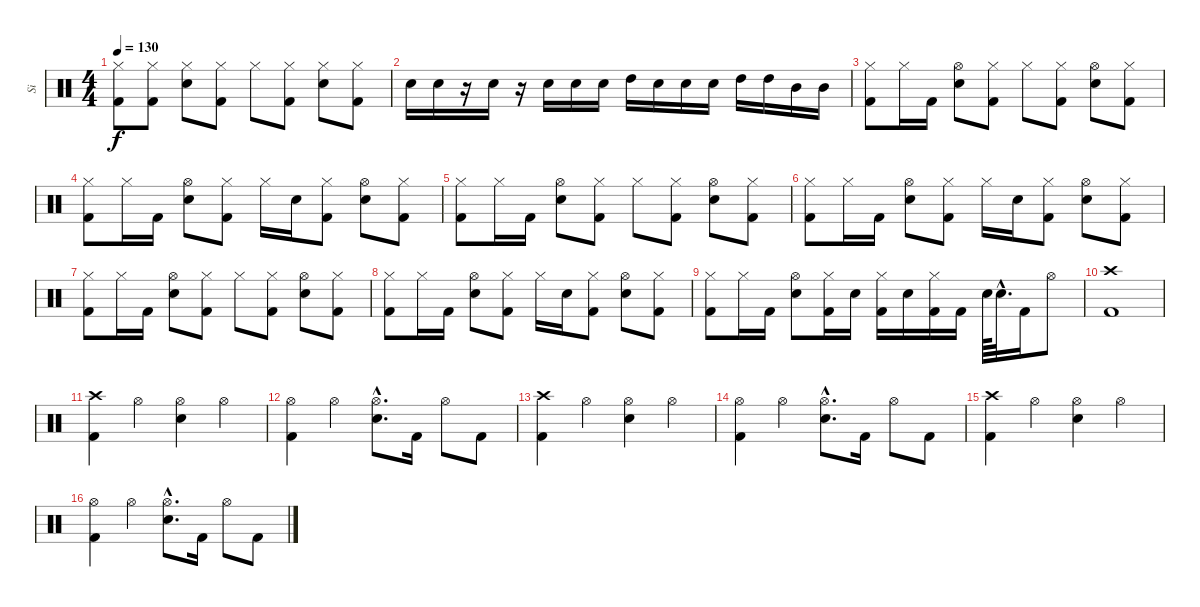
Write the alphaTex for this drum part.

\track ("Si" "Si") {instrument percussion}
\staff {score}
\articulation defaults
\ts (4 4)
\tempo 130
\clef neutral
\ks c
("Hi-Hat (closed)" "Kick (hit) 2").8{dy f} ("Hi-Hat (closed)" "Kick (hit) 2").8 ("Hi-Hat (closed)" "Electric Snare (hit)").8 ("Hi-Hat (closed)" "Kick (hit) 2").8 "Hi-Hat (closed)".8 ("Hi-Hat (closed)" "Kick (hit) 2").8 ("Hi-Hat (closed)" "Electric Snare (hit)").8 ("Hi-Hat (closed)" "Kick (hit) 2").8 |
"Electric Snare (hit)".16 "Electric Snare (hit)".16 r.16 "Electric Snare (hit)".16 r.16 "Electric Snare (hit)".16 "Electric Snare (hit)".16 "Electric Snare (hit)".16 "High Tom (hit)".16 "Electric Snare (hit)".16 "Electric Snare (hit)".16 "Electric Snare (hit)".16 "High Tom (hit)".16 "High Tom (hit)".16 "Mid Tom (hit)".16 "Mid Tom (hit)".16 |
("Hi-Hat (closed)" "Kick (hit) 2").8 "Hi-Hat (closed)".16 "Kick (hit) 2".16 ("Hi-Hat (open)" "Electric Snare (hit)").8 ("Hi-Hat (closed)" "Kick (hit) 2").8 "Hi-Hat (closed)".8 ("Hi-Hat (closed)" "Kick (hit) 2").8 ("Hi-Hat (open)" "Electric Snare (hit)").8 ("Hi-Hat (closed)" "Kick (hit) 2").8 |
("Hi-Hat (closed)" "Kick (hit) 2").8 "Hi-Hat (closed)".16 "Kick (hit) 2".16 ("Hi-Hat (open)" "Electric Snare (hit)").8 ("Hi-Hat (closed)" "Kick (hit) 2").8 "Hi-Hat (closed)".16 "Electric Snare (hit)".16 ("Hi-Hat (closed)" "Kick (hit) 2").8 ("Hi-Hat (open)" "Electric Snare (hit)").8 ("Hi-Hat (closed)" "Kick (hit) 2").8 |
("Hi-Hat (closed)" "Kick (hit) 2").8 "Hi-Hat (closed)".16 "Kick (hit) 2".16 ("Hi-Hat (open)" "Electric Snare (hit)").8 ("Hi-Hat (closed)" "Kick (hit) 2").8 "Hi-Hat (closed)".8 ("Hi-Hat (closed)" "Kick (hit) 2").8 ("Hi-Hat (open)" "Electric Snare (hit)").8 ("Hi-Hat (closed)" "Kick (hit) 2").8 |
("Hi-Hat (closed)" "Kick (hit) 2").8 "Hi-Hat (closed)".16 "Kick (hit) 2".16 ("Hi-Hat (open)" "Electric Snare (hit)").8 ("Hi-Hat (closed)" "Kick (hit) 2").8 "Hi-Hat (closed)".16 "Electric Snare (hit)".16 ("Hi-Hat (closed)" "Kick (hit) 2").8 ("Hi-Hat (open)" "Electric Snare (hit)").8 ("Hi-Hat (closed)" "Kick (hit) 2").8 |
("Hi-Hat (closed)" "Kick (hit) 2").8 "Hi-Hat (closed)".16 "Kick (hit) 2".16 ("Hi-Hat (open)" "Electric Snare (hit)").8 ("Hi-Hat (closed)" "Kick (hit) 2").8 "Hi-Hat (closed)".8 ("Hi-Hat (closed)" "Kick (hit) 2").8 ("Hi-Hat (open)" "Electric Snare (hit)").8 ("Hi-Hat (closed)" "Kick (hit) 2").8 |
("Hi-Hat (closed)" "Kick (hit) 2").8 "Hi-Hat (closed)".16 "Kick (hit) 2".16 ("Hi-Hat (open)" "Electric Snare (hit)").8 ("Hi-Hat (closed)" "Kick (hit) 2").8 "Hi-Hat (closed)".16 "Electric Snare (hit)".16 ("Hi-Hat (closed)" "Kick (hit) 2").8 ("Hi-Hat (open)" "Electric Snare (hit)").8 ("Hi-Hat (closed)" "Kick (hit) 2").8 |
("Hi-Hat (closed)" "Kick (hit) 2").8 "Hi-Hat (closed)".16 "Kick (hit) 2".16 ("Hi-Hat (open)" "Electric Snare (hit)").8 ("Hi-Hat (closed)" "Kick (hit) 2").16 "Electric Snare (hit)".16 ("Hi-Hat (closed)" "Kick (hit) 2").16 "Electric Snare (hit)".16 ("Hi-Hat (closed)" "Kick (hit) 2").16 "Kick (hit) 2".16 "Electric Snare (hit)".64 "Electric Snare (hit)"{hac}.32{d} "Kick (hit) 2".16 "Hi-Hat (open)".8 |
("Crash high (hit)" "Kick (hit) 2").1 |
("Crash high (hit)" "Kick (hit) 2").4 "Hi-Hat (open)".4 ("Hi-Hat (open)" "Electric Snare (hit)").4 "Hi-Hat (open)".4 |
("Hi-Hat (open)" "Kick (hit) 2").4 "Hi-Hat (open)".4 ("Hi-Hat (open)"{hac} "Electric Snare (hit)"{hac}).8{d} "Kick (hit) 2".16 "Hi-Hat (open)".8 "Kick (hit) 2".8 |
("Crash high (hit)" "Kick (hit) 2").4 "Hi-Hat (open)".4 ("Hi-Hat (open)" "Electric Snare (hit)").4 "Hi-Hat (open)".4 |
("Hi-Hat (open)" "Kick (hit) 2").4 "Hi-Hat (open)".4 ("Hi-Hat (open)"{hac} "Electric Snare (hit)"{hac}).8{d} "Kick (hit) 2".16 "Hi-Hat (open)".8 "Kick (hit) 2".8 |
("Crash high (hit)" "Kick (hit) 2").4 "Hi-Hat (open)".4 ("Hi-Hat (open)" "Electric Snare (hit)").4 "Hi-Hat (open)".4 |
("Hi-Hat (open)" "Kick (hit) 2").4 "Hi-Hat (open)".4 ("Hi-Hat (open)"{hac} "Electric Snare (hit)"{hac}).8{d} "Kick (hit) 2".16 "Hi-Hat (open)".8 "Kick (hit) 2".8
